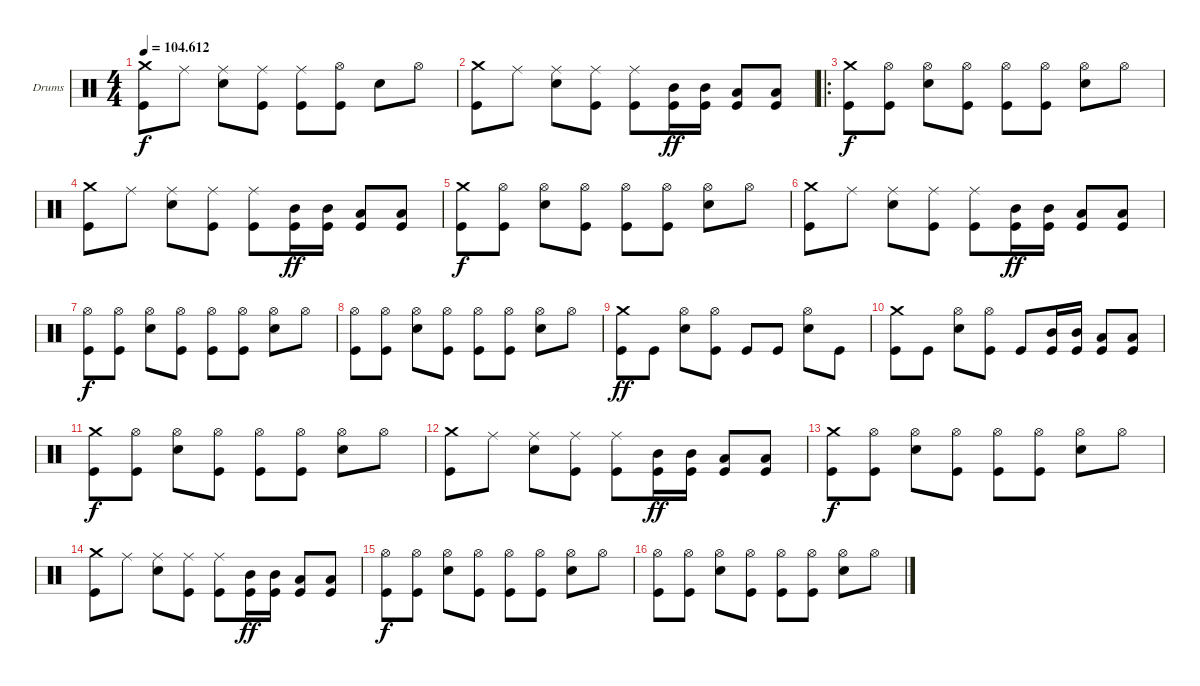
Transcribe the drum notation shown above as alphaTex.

\defaultSystemsLayout 4
\bracketExtendMode groupsimilarinstruments
\firstSystemTrackNameOrientation horizontal
\otherSystemsTrackNameOrientation horizontal
\track ("Drumkit" "Drums") {instrument percussion}
\staff {score}
\articulation defaults
\ts (4 4)
\tempo
104.612
\accidentals auto
\clef neutral
\ottava regular
\simile none
\ks c
("Kick (hit)" "Crash medium (hit)").8{dy f} "Ride (middle)".8 ("Snare (hit) 2" "Ride (middle)").8 ("Kick (hit)" "Ride (middle)").8 ("Kick (hit)" "Ride (middle)").8 ("Kick (hit)" "Hi-Hat (open)").8 "Snare (hit) 2".8 "Hi-Hat (open)".8 |
("Kick (hit)" "Crash medium (hit)").8 "Ride (middle)".8 ("Snare (hit) 2" "Ride (middle)").8 ("Kick (hit)" "Ride (middle)").8 ("Kick (hit)" "Ride (middle)").8 ("Mid Tom (hit)" "Kick (hit)").16{dy ff} ("Mid Tom (hit)" "Kick (hit)").16 ("Low Tom (hit)" "Kick (hit)").8 ("Low Tom (hit)" "Kick (hit)").8 |
\ro
("Kick (hit)" "Crash medium (hit)").8{dy f} ("Kick (hit)" "Hi-Hat (open)").8 ("Snare (hit) 2" "Hi-Hat (open)").8 ("Kick (hit)" "Hi-Hat (open)").8 ("Kick (hit)" "Hi-Hat (open)").8 ("Kick (hit)" "Hi-Hat (open)").8 ("Snare (hit) 2" "Hi-Hat (open)").8 "Hi-Hat (open)".8 |
("Kick (hit)" "Crash medium (hit)").8 "Ride (middle)".8 ("Snare (hit) 2" "Ride (middle)").8 ("Kick (hit)" "Ride (middle)").8 ("Kick (hit)" "Ride (middle)").8 ("Mid Tom (hit)" "Kick (hit)").16{dy ff} ("Mid Tom (hit)" "Kick (hit)").16 ("Low Tom (hit)" "Kick (hit)").8 ("Low Tom (hit)" "Kick (hit)").8 |
("Kick (hit)" "Crash medium (hit)").8{dy f} ("Kick (hit)" "Hi-Hat (open)").8 ("Snare (hit) 2" "Hi-Hat (open)").8 ("Kick (hit)" "Hi-Hat (open)").8 ("Kick (hit)" "Hi-Hat (open)").8 ("Kick (hit)" "Hi-Hat (open)").8 ("Snare (hit) 2" "Hi-Hat (open)").8 "Hi-Hat (open)".8 |
("Kick (hit)" "Crash medium (hit)").8 "Ride (middle)".8 ("Snare (hit) 2" "Ride (middle)").8 ("Kick (hit)" "Ride (middle)").8 ("Kick (hit)" "Ride (middle)").8 ("Mid Tom (hit)" "Kick (hit)").16{dy ff} ("Mid Tom (hit)" "Kick (hit)").16 ("Low Tom (hit)" "Kick (hit)").8 ("Low Tom (hit)" "Kick (hit)").8 |
("Kick (hit)" "Hi-Hat (open)").8{dy f} ("Kick (hit)" "Hi-Hat (open)").8 ("Snare (hit) 2" "Hi-Hat (open)").8 ("Kick (hit)" "Hi-Hat (open)").8 ("Kick (hit)" "Hi-Hat (open)").8 ("Kick (hit)" "Hi-Hat (open)").8 ("Snare (hit) 2" "Hi-Hat (open)").8 "Hi-Hat (open)".8 |
("Kick (hit)" "Hi-Hat (open)").8 ("Kick (hit)" "Hi-Hat (open)").8 ("Snare (hit) 2" "Hi-Hat (open)").8 ("Kick (hit)" "Hi-Hat (open)").8 ("Kick (hit)" "Hi-Hat (open)").8 ("Kick (hit)" "Hi-Hat (open)").8 ("Snare (hit) 2" "Hi-Hat (open)").8 "Hi-Hat (open)".8 |
("Kick (hit)" "Crash medium (hit)").8{dy ff} "Kick (hit)".8 ("Snare (hit) 2" "Hi-Hat (open)").8 ("Kick (hit)" "Hi-Hat (open)").8 "Kick (hit)".8 "Kick (hit)".8 ("Snare (hit) 2" "Hi-Hat (open)").8 "Kick (hit)".8 |
("Kick (hit)" "Crash medium (hit)").8 "Kick (hit)".8 ("Snare (hit) 2" "Hi-Hat (open)").8 ("Kick (hit)" "Hi-Hat (open)").8 "Kick (hit)".8 ("Mid Tom (hit)" "Kick (hit)").16 ("Mid Tom (hit)" "Kick (hit)").16 ("Low Tom (hit)" "Kick (hit)").8 ("Low Tom (hit)" "Kick (hit)").8 |
("Kick (hit)" "Crash medium (hit)").8{dy f} ("Kick (hit)" "Hi-Hat (open)").8 ("Snare (hit) 2" "Hi-Hat (open)").8 ("Kick (hit)" "Hi-Hat (open)").8 ("Kick (hit)" "Hi-Hat (open)").8 ("Kick (hit)" "Hi-Hat (open)").8 ("Snare (hit) 2" "Hi-Hat (open)").8 "Hi-Hat (open)".8 |
("Kick (hit)" "Crash medium (hit)").8 "Ride (middle)".8 ("Snare (hit) 2" "Ride (middle)").8 ("Kick (hit)" "Ride (middle)").8 ("Kick (hit)" "Ride (middle)").8 ("Mid Tom (hit)" "Kick (hit)").16{dy ff} ("Mid Tom (hit)" "Kick (hit)").16 ("Low Tom (hit)" "Kick (hit)").8 ("Low Tom (hit)" "Kick (hit)").8 |
("Kick (hit)" "Crash medium (hit)").8{dy f} ("Kick (hit)" "Hi-Hat (open)").8 ("Snare (hit) 2" "Hi-Hat (open)").8 ("Kick (hit)" "Hi-Hat (open)").8 ("Kick (hit)" "Hi-Hat (open)").8 ("Kick (hit)" "Hi-Hat (open)").8 ("Snare (hit) 2" "Hi-Hat (open)").8 "Hi-Hat (open)".8 |
("Kick (hit)" "Crash medium (hit)").8 "Ride (middle)".8 ("Snare (hit) 2" "Ride (middle)").8 ("Kick (hit)" "Ride (middle)").8 ("Kick (hit)" "Ride (middle)").8 ("Mid Tom (hit)" "Kick (hit)").16{dy ff} ("Mid Tom (hit)" "Kick (hit)").16 ("Low Tom (hit)" "Kick (hit)").8 ("Low Tom (hit)" "Kick (hit)").8 |
("Kick (hit)" "Hi-Hat (open)").8{dy f} ("Kick (hit)" "Hi-Hat (open)").8 ("Snare (hit) 2" "Hi-Hat (open)").8 ("Kick (hit)" "Hi-Hat (open)").8 ("Kick (hit)" "Hi-Hat (open)").8 ("Kick (hit)" "Hi-Hat (open)").8 ("Snare (hit) 2" "Hi-Hat (open)").8 "Hi-Hat (open)".8 |
("Kick (hit)" "Hi-Hat (open)").8 ("Kick (hit)" "Hi-Hat (open)").8 ("Snare (hit) 2" "Hi-Hat (open)").8 ("Kick (hit)" "Hi-Hat (open)").8 ("Kick (hit)" "Hi-Hat (open)").8 ("Kick (hit)" "Hi-Hat (open)").8 ("Snare (hit) 2" "Hi-Hat (open)").8 "Hi-Hat (open)".8
